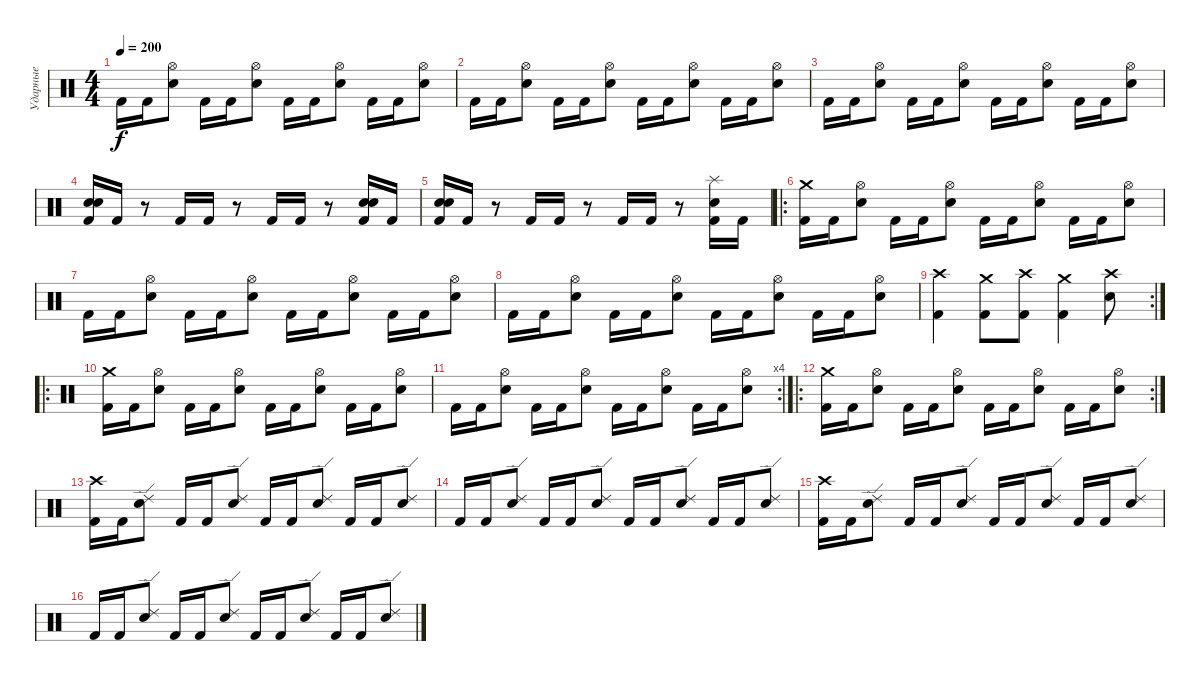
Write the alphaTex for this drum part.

\track ("Ударные" "Ударные") {instrument percussion}
\staff {score}
\articulation defaults
\ts (4 4)
\tempo 200
\clef neutral
\ks c "Kick (hit) 2".16{dy f} "Kick (hit) 2".16
("Hi-Hat (open)" "Electric Snare (hit)").8 "Kick (hit) 2".16 "Kick (hit) 2".16 ("Hi-Hat (open)" "Electric Snare (hit)").8 "Kick (hit) 2".16 "Kick (hit) 2".16 ("Hi-Hat (open)" "Electric Snare (hit)").8 "Kick (hit) 2".16 "Kick (hit) 2".16 ("Hi-Hat (open)" "Electric Snare (hit)").8 |
"Kick (hit) 2".16 "Kick (hit) 2".16 ("Hi-Hat (open)" "Electric Snare (hit)").8 "Kick (hit) 2".16 "Kick (hit) 2".16 ("Hi-Hat (open)" "Electric Snare (hit)").8 "Kick (hit) 2".16 "Kick (hit) 2".16 ("Hi-Hat (open)" "Electric Snare (hit)").8 "Kick (hit) 2".16 "Kick (hit) 2".16 ("Hi-Hat (open)" "Electric Snare (hit)").8 |
"Kick (hit) 2".16 "Kick (hit) 2".16 ("Hi-Hat (open)" "Electric Snare (hit)").8 "Kick (hit) 2".16 "Kick (hit) 2".16 ("Hi-Hat (open)" "Electric Snare (hit)").8 "Kick (hit) 2".16 "Kick (hit) 2".16 ("Hi-Hat (open)" "Electric Snare (hit)").8 "Kick (hit) 2".16 "Kick (hit) 2".16 ("Hi-Hat (open)" "Electric Snare (hit)").8 |
("Electric Snare (hit)" "Electric Snare (hit)" "Kick (hit) 2").16 "Kick (hit) 2".16 r.8 "Kick (hit) 2".16 "Kick (hit) 2".16 r.8 "Kick (hit) 2".16 "Kick (hit) 2".16 r.8 ("Electric Snare (hit)" "Electric Snare (hit)" "Kick (hit) 2").16 "Kick (hit) 2".16 |
("Electric Snare (hit)" "Electric Snare (hit)" "Kick (hit) 2").16 "Kick (hit) 2".16 r.8 "Kick (hit) 2".16 "Kick (hit) 2".16 r.8 "Kick (hit) 2".16 "Kick (hit) 2".16 r.8 ("Splash (hit)" "Electric Snare (hit)" "Kick (hit) 2").16 "Kick (hit) 2".16 |
\ro
("Crash medium (hit)" "Kick (hit) 2").16 "Kick (hit) 2".16 ("Hi-Hat (open)" "Electric Snare (hit)").8 "Kick (hit) 2".16 "Kick (hit) 2".16 ("Hi-Hat (open)" "Electric Snare (hit)").8 "Kick (hit) 2".16 "Kick (hit) 2".16 ("Hi-Hat (open)" "Electric Snare (hit)").8 "Kick (hit) 2".16 "Kick (hit) 2".16 ("Hi-Hat (open)" "Electric Snare (hit)").8 |
"Kick (hit) 2".16 "Kick (hit) 2".16 ("Hi-Hat (open)" "Electric Snare (hit)").8 "Kick (hit) 2".16 "Kick (hit) 2".16 ("Hi-Hat (open)" "Electric Snare (hit)").8 "Kick (hit) 2".16 "Kick (hit) 2".16 ("Hi-Hat (open)" "Electric Snare (hit)").8 "Kick (hit) 2".16 "Kick (hit) 2".16 ("Hi-Hat (open)" "Electric Snare (hit)").8 |
"Kick (hit) 2".16 "Kick (hit) 2".16 ("Hi-Hat (open)" "Electric Snare (hit)").8 "Kick (hit) 2".16 "Kick (hit) 2".16 ("Hi-Hat (open)" "Electric Snare (hit)").8 "Kick (hit) 2".16 "Kick (hit) 2".16 ("Hi-Hat (open)" "Electric Snare (hit)").8 "Kick (hit) 2".16 "Kick (hit) 2".16 ("Hi-Hat (open)" "Electric Snare (hit)").8 |
\rc 2
("Crash high (hit)" "Kick (hit) 2").4 ("Crash medium (hit)" "Kick (hit) 2").8 ("Crash high (hit)" "Kick (hit) 2").8 ("Crash medium (hit)" "Kick (hit) 2").4 ("Crash high (hit)" "Electric Snare (hit)").8 |
\ro
("Crash medium (hit)" "Kick (hit) 2").16 "Kick (hit) 2".16 ("Hi-Hat (open)" "Electric Snare (hit)").8 "Kick (hit) 2".16 "Kick (hit) 2".16 ("Hi-Hat (open)" "Electric Snare (hit)").8 "Kick (hit) 2".16 "Kick (hit) 2".16 ("Hi-Hat (open)" "Electric Snare (hit)").8 "Kick (hit) 2".16 "Kick (hit) 2".16 ("Hi-Hat (open)" "Electric Snare (hit)").8 |
\rc 4 "Kick (hit) 2".16 "Kick (hit) 2".16
("Hi-Hat (open)" "Electric Snare (hit)").8 "Kick (hit) 2".16 "Kick (hit) 2".16 ("Hi-Hat (open)" "Electric Snare (hit)").8 "Kick (hit) 2".16 "Kick (hit) 2".16 ("Hi-Hat (open)" "Electric Snare (hit)").8 "Kick (hit) 2".16 "Kick (hit) 2".16 ("Hi-Hat (open)" "Electric Snare (hit)").8 |
\ro
\rc 2
("Crash medium (hit)" "Kick (hit) 2").16 "Kick (hit) 2".16 ("Hi-Hat (open)" "Electric Snare (hit)").8 "Kick (hit) 2".16 "Kick (hit) 2".16 ("Hi-Hat (open)" "Electric Snare (hit)").8 "Kick (hit) 2".16 "Kick (hit) 2".16 ("Hi-Hat (open)" "Electric Snare (hit)").8 "Kick (hit) 2".16 "Kick (hit) 2".16 ("Hi-Hat (open)" "Electric Snare (hit)").8 |
("Crash high (hit)" "Kick (hit) 2").16 "Kick (hit) 2".16 ("Ride (edge) 2" "Electric Snare (hit)").8 "Kick (hit) 2".16 "Kick (hit) 2".16 ("Ride (edge) 2" "Electric Snare (hit)").8 "Kick (hit) 2".16 "Kick (hit) 2".16 ("Ride (edge) 2" "Electric Snare (hit)").8 "Kick (hit) 2".16 "Kick (hit) 2".16 ("Ride (edge) 2" "Electric Snare (hit)").8 |
"Kick (hit) 2".16 "Kick (hit) 2".16 ("Ride (edge) 2" "Electric Snare (hit)").8 "Kick (hit) 2".16 "Kick (hit) 2".16 ("Ride (edge) 2" "Electric Snare (hit)").8 "Kick (hit) 2".16 "Kick (hit) 2".16 ("Ride (edge) 2" "Electric Snare (hit)").8 "Kick (hit) 2".16 "Kick (hit) 2".16 ("Ride (edge) 2" "Electric Snare (hit)").8 |
("Crash high (hit)" "Kick (hit) 2").16 "Kick (hit) 2".16 ("Ride (edge) 2" "Electric Snare (hit)").8 "Kick (hit) 2".16 "Kick (hit) 2".16 ("Ride (edge) 2" "Electric Snare (hit)").8 "Kick (hit) 2".16 "Kick (hit) 2".16 ("Ride (edge) 2" "Electric Snare (hit)").8 "Kick (hit) 2".16 "Kick (hit) 2".16 ("Ride (edge) 2" "Electric Snare (hit)").8 |
"Kick (hit) 2".16 "Kick (hit) 2".16 ("Ride (edge) 2" "Electric Snare (hit)").8 "Kick (hit) 2".16 "Kick (hit) 2".16 ("Ride (edge) 2" "Electric Snare (hit)").8 "Kick (hit) 2".16 "Kick (hit) 2".16 ("Ride (edge) 2" "Electric Snare (hit)").8 "Kick (hit) 2".16 "Kick (hit) 2".16 ("Ride (edge) 2" "Electric Snare (hit)").8
